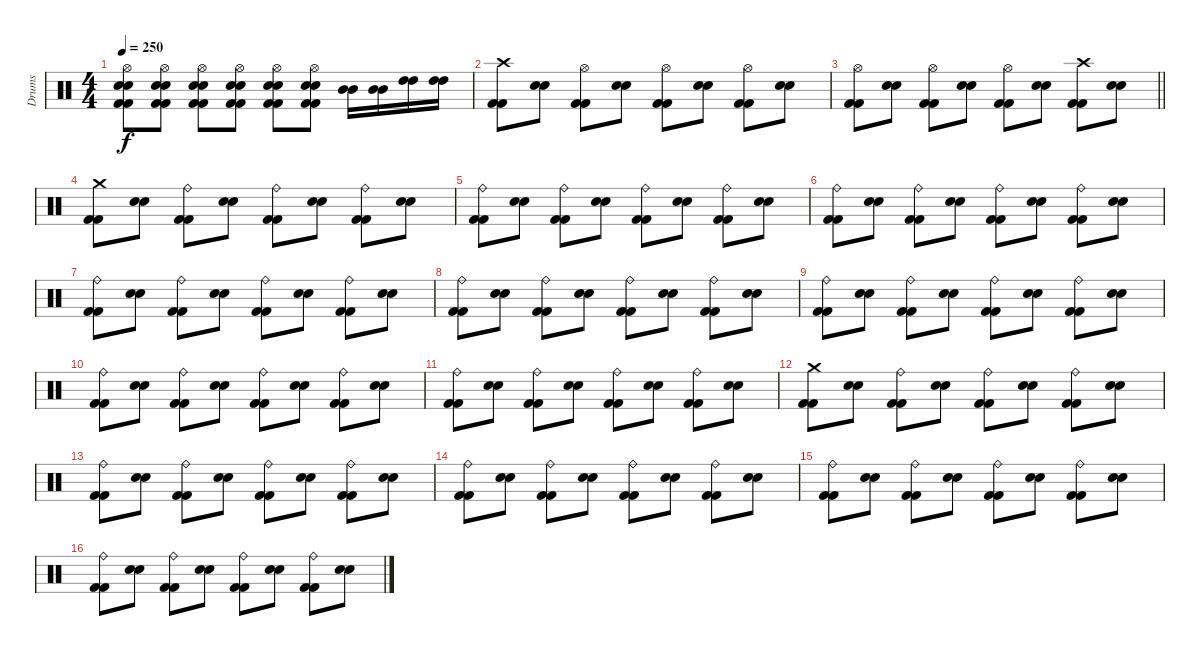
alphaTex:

\track ("Drums" "Drums") {instrument percussion}
\staff {score}
\articulation defaults
\ts (4 4)
\tempo 250
\clef neutral
\ks c
("Kick (hit) 2" "Kick (hit) 2" "Electric Snare (hit)" "Electric Snare (hit)" "Hi-Hat (open)").8{dy f} ("Kick (hit) 2" "Kick (hit) 2" "Electric Snare (hit)" "Electric Snare (hit)" "Hi-Hat (open)").8 ("Kick (hit) 2" "Kick (hit) 2" "Electric Snare (hit)" "Electric Snare (hit)" "Hi-Hat (open)").8 ("Kick (hit) 2" "Kick (hit) 2" "Electric Snare (hit)" "Electric Snare (hit)" "Hi-Hat (open)").8 ("Kick (hit) 2" "Kick (hit) 2" "Electric Snare (hit)" "Electric Snare (hit)" "Hi-Hat (open)").8 ("Kick (hit) 2" "Kick (hit) 2" "Electric Snare (hit)" "Electric Snare (hit)" "Hi-Hat (open)").8 ("Mid Tom (hit)" "Mid Tom (hit)").16 ("Mid Tom (hit)" "Mid Tom (hit)").16 ("High Tom (hit)" "High Tom (hit)").16 ("High Tom (hit)" "High Tom (hit)").16 |
("Kick (hit) 2" "Kick (hit) 2" "Crash high (hit)").8 ("Electric Snare (hit)" "Electric Snare (hit)").8 ("Kick (hit) 2" "Kick (hit) 2" "Hi-Hat (open)").8 ("Electric Snare (hit)" "Electric Snare (hit)").8 ("Kick (hit) 2" "Kick (hit) 2" "Hi-Hat (open)").8 ("Electric Snare (hit)" "Electric Snare (hit)").8 ("Kick (hit) 2" "Kick (hit) 2" "Hi-Hat (open)").8 ("Electric Snare (hit)" "Electric Snare (hit)").8 |
\barLineRight lightlight
("Kick (hit) 2" "Kick (hit) 2" "Hi-Hat (open)").8 ("Electric Snare (hit)" "Electric Snare (hit)").8 ("Kick (hit) 2" "Kick (hit) 2" "Hi-Hat (open)").8 ("Electric Snare (hit)" "Electric Snare (hit)").8 ("Kick (hit) 2" "Kick (hit) 2" "Hi-Hat (open)").8 ("Electric Snare (hit)" "Electric Snare (hit)").8 ("Kick (hit) 2" "Kick (hit) 2" "Crash high (hit)").8 ("Electric Snare (hit)" "Electric Snare (hit)").8 |
("Kick (hit) 2" "Kick (hit) 2" "Crash medium (hit)").8 ("Electric Snare (hit)" "Electric Snare (hit)").8 ("Kick (hit) 2" "Kick (hit) 2" "Ride (bell)").8 ("Electric Snare (hit)" "Electric Snare (hit)").8 ("Kick (hit) 2" "Kick (hit) 2" "Ride (bell)").8 ("Electric Snare (hit)" "Electric Snare (hit)").8 ("Kick (hit) 2" "Kick (hit) 2" "Ride (bell)").8 ("Electric Snare (hit)" "Electric Snare (hit)").8 |
("Kick (hit) 2" "Kick (hit) 2" "Ride (bell)").8 ("Electric Snare (hit)" "Electric Snare (hit)").8 ("Kick (hit) 2" "Kick (hit) 2" "Ride (bell)").8 ("Electric Snare (hit)" "Electric Snare (hit)").8 ("Kick (hit) 2" "Kick (hit) 2" "Ride (bell)").8 ("Electric Snare (hit)" "Electric Snare (hit)").8 ("Kick (hit) 2" "Kick (hit) 2" "Ride (bell)").8 ("Electric Snare (hit)" "Electric Snare (hit)").8 |
("Kick (hit) 2" "Kick (hit) 2" "Ride (bell)").8 ("Electric Snare (hit)" "Electric Snare (hit)").8 ("Kick (hit) 2" "Kick (hit) 2" "Ride (bell)").8 ("Electric Snare (hit)" "Electric Snare (hit)").8 ("Kick (hit) 2" "Kick (hit) 2" "Ride (bell)").8 ("Electric Snare (hit)" "Electric Snare (hit)").8 ("Kick (hit) 2" "Kick (hit) 2" "Ride (bell)").8 ("Electric Snare (hit)" "Electric Snare (hit)").8 |
("Kick (hit) 2" "Kick (hit) 2" "Ride (bell)").8 ("Electric Snare (hit)" "Electric Snare (hit)").8 ("Kick (hit) 2" "Kick (hit) 2" "Ride (bell)").8 ("Electric Snare (hit)" "Electric Snare (hit)").8 ("Kick (hit) 2" "Kick (hit) 2" "Ride (bell)").8 ("Electric Snare (hit)" "Electric Snare (hit)").8 ("Kick (hit) 2" "Kick (hit) 2" "Ride (bell)").8 ("Electric Snare (hit)" "Electric Snare (hit)").8 |
("Kick (hit) 2" "Kick (hit) 2" "Ride (bell)").8 ("Electric Snare (hit)" "Electric Snare (hit)").8 ("Kick (hit) 2" "Kick (hit) 2" "Ride (bell)").8 ("Electric Snare (hit)" "Electric Snare (hit)").8 ("Kick (hit) 2" "Kick (hit) 2" "Ride (bell)").8 ("Electric Snare (hit)" "Electric Snare (hit)").8 ("Kick (hit) 2" "Kick (hit) 2" "Ride (bell)").8 ("Electric Snare (hit)" "Electric Snare (hit)").8 |
("Kick (hit) 2" "Kick (hit) 2" "Ride (bell)").8 ("Electric Snare (hit)" "Electric Snare (hit)").8 ("Kick (hit) 2" "Kick (hit) 2" "Ride (bell)").8 ("Electric Snare (hit)" "Electric Snare (hit)").8 ("Kick (hit) 2" "Kick (hit) 2" "Ride (bell)").8 ("Electric Snare (hit)" "Electric Snare (hit)").8 ("Kick (hit) 2" "Kick (hit) 2" "Ride (bell)").8 ("Electric Snare (hit)" "Electric Snare (hit)").8 |
("Kick (hit) 2" "Kick (hit) 2" "Ride (bell)").8 ("Electric Snare (hit)" "Electric Snare (hit)").8 ("Kick (hit) 2" "Kick (hit) 2" "Ride (bell)").8 ("Electric Snare (hit)" "Electric Snare (hit)").8 ("Kick (hit) 2" "Kick (hit) 2" "Ride (bell)").8 ("Electric Snare (hit)" "Electric Snare (hit)").8 ("Kick (hit) 2" "Kick (hit) 2" "Ride (bell)").8 ("Electric Snare (hit)" "Electric Snare (hit)").8 |
("Kick (hit) 2" "Kick (hit) 2" "Ride (bell)").8 ("Electric Snare (hit)" "Electric Snare (hit)").8 ("Kick (hit) 2" "Kick (hit) 2" "Ride (bell)").8 ("Electric Snare (hit)" "Electric Snare (hit)").8 ("Kick (hit) 2" "Kick (hit) 2" "Ride (bell)").8 ("Electric Snare (hit)" "Electric Snare (hit)").8 ("Kick (hit) 2" "Kick (hit) 2" "Ride (bell)").8 ("Electric Snare (hit)" "Electric Snare (hit)").8 |
("Kick (hit) 2" "Kick (hit) 2" "Crash medium (hit)").8 ("Electric Snare (hit)" "Electric Snare (hit)").8 ("Kick (hit) 2" "Kick (hit) 2" "Ride (bell)").8 ("Electric Snare (hit)" "Electric Snare (hit)").8 ("Kick (hit) 2" "Kick (hit) 2" "Ride (bell)").8 ("Electric Snare (hit)" "Electric Snare (hit)").8 ("Kick (hit) 2" "Kick (hit) 2" "Ride (bell)").8 ("Electric Snare (hit)" "Electric Snare (hit)").8 |
("Kick (hit) 2" "Kick (hit) 2" "Ride (bell)").8 ("Electric Snare (hit)" "Electric Snare (hit)").8 ("Kick (hit) 2" "Kick (hit) 2" "Ride (bell)").8 ("Electric Snare (hit)" "Electric Snare (hit)").8 ("Kick (hit) 2" "Kick (hit) 2" "Ride (bell)").8 ("Electric Snare (hit)" "Electric Snare (hit)").8 ("Kick (hit) 2" "Kick (hit) 2" "Ride (bell)").8 ("Electric Snare (hit)" "Electric Snare (hit)").8 |
("Kick (hit) 2" "Kick (hit) 2" "Ride (bell)").8 ("Electric Snare (hit)" "Electric Snare (hit)").8 ("Kick (hit) 2" "Kick (hit) 2" "Ride (bell)").8 ("Electric Snare (hit)" "Electric Snare (hit)").8 ("Kick (hit) 2" "Kick (hit) 2" "Ride (bell)").8 ("Electric Snare (hit)" "Electric Snare (hit)").8 ("Kick (hit) 2" "Kick (hit) 2" "Ride (bell)").8 ("Electric Snare (hit)" "Electric Snare (hit)").8 |
("Kick (hit) 2" "Kick (hit) 2" "Ride (bell)").8 ("Electric Snare (hit)" "Electric Snare (hit)").8 ("Kick (hit) 2" "Kick (hit) 2" "Ride (bell)").8 ("Electric Snare (hit)" "Electric Snare (hit)").8 ("Kick (hit) 2" "Kick (hit) 2" "Ride (bell)").8 ("Electric Snare (hit)" "Electric Snare (hit)").8 ("Kick (hit) 2" "Kick (hit) 2" "Ride (bell)").8 ("Electric Snare (hit)" "Electric Snare (hit)").8 |
("Kick (hit) 2" "Kick (hit) 2" "Ride (bell)").8 ("Electric Snare (hit)" "Electric Snare (hit)").8 ("Kick (hit) 2" "Kick (hit) 2" "Ride (bell)").8 ("Electric Snare (hit)" "Electric Snare (hit)").8 ("Kick (hit) 2" "Kick (hit) 2" "Ride (bell)").8 ("Electric Snare (hit)" "Electric Snare (hit)").8 ("Kick (hit) 2" "Kick (hit) 2" "Ride (bell)").8 ("Electric Snare (hit)" "Electric Snare (hit)").8
